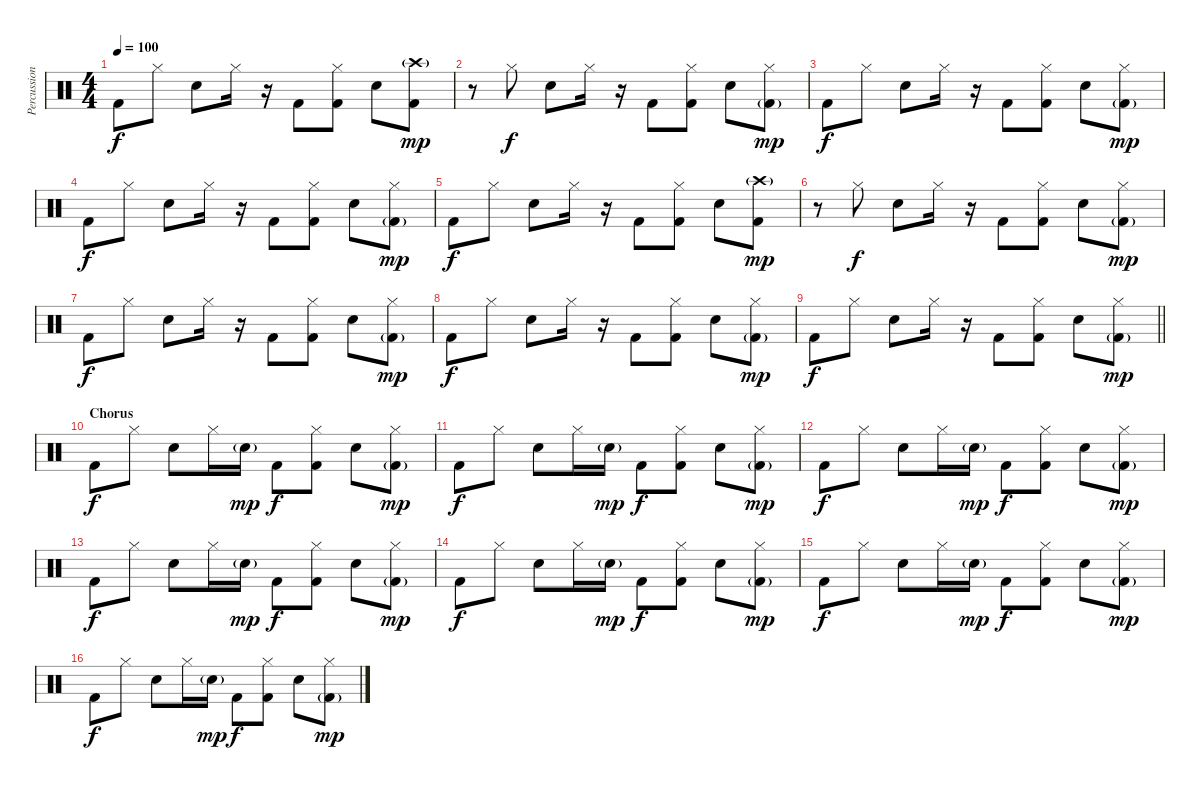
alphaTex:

\track ("Percussion" "Percussion") {instrument percussion}
\staff {score}
\articulation defaults
\ts (4 4)
\tempo 100
\clef neutral
\ks c "Kick (hit) 2".8{dy f} "Hi-Hat (closed)".8 "Snare (hit) 2".8 "Hi-Hat (closed)".16
r.16 "Kick (hit) 2".8 ("Hi-Hat (closed)" "Kick (hit) 2").8 "Snare (hit) 2".8 ("Crash high (hit)"{g} "Kick (hit) 2").8{dy mp} |
r.8 "Hi-Hat (closed)".8{dy f} "Snare (hit) 2".8 "Hi-Hat (closed)".16 r.16 "Kick (hit) 2".8 ("Hi-Hat (closed)" "Kick (hit) 2").8 "Snare (hit) 2".8 ("Hi-Hat (closed)" "Kick (hit) 2"{g}).8{dy mp} |
"Kick (hit) 2".8{dy f} "Hi-Hat (closed)".8 "Snare (hit) 2".8 "Hi-Hat (closed)".16 r.16 "Kick (hit) 2".8 ("Hi-Hat (closed)" "Kick (hit) 2").8 "Snare (hit) 2".8 ("Hi-Hat (closed)" "Kick (hit) 2"{g}).8{dy mp} |
"Kick (hit) 2".8{dy f} "Hi-Hat (closed)".8 "Snare (hit) 2".8 "Hi-Hat (closed)".16 r.16 "Kick (hit) 2".8 ("Hi-Hat (closed)" "Kick (hit) 2").8 "Snare (hit) 2".8 ("Hi-Hat (closed)" "Kick (hit) 2"{g}).8{dy mp} |
"Kick (hit) 2".8{dy f} "Hi-Hat (closed)".8 "Snare (hit) 2".8 "Hi-Hat (closed)".16 r.16 "Kick (hit) 2".8 ("Hi-Hat (closed)" "Kick (hit) 2").8 "Snare (hit) 2".8 ("Crash high (hit)"{g} "Kick (hit) 2").8{dy mp} |
r.8 "Hi-Hat (closed)".8{dy f} "Snare (hit) 2".8 "Hi-Hat (closed)".16 r.16 "Kick (hit) 2".8 ("Hi-Hat (closed)" "Kick (hit) 2").8 "Snare (hit) 2".8 ("Hi-Hat (closed)" "Kick (hit) 2"{g}).8{dy mp} |
"Kick (hit) 2".8{dy f} "Hi-Hat (closed)".8 "Snare (hit) 2".8 "Hi-Hat (closed)".16 r.16 "Kick (hit) 2".8 ("Hi-Hat (closed)" "Kick (hit) 2").8 "Snare (hit) 2".8 ("Hi-Hat (closed)" "Kick (hit) 2"{g}).8{dy mp} |
"Kick (hit) 2".8{dy f} "Hi-Hat (closed)".8 "Snare (hit) 2".8 "Hi-Hat (closed)".16 r.16 "Kick (hit) 2".8 ("Hi-Hat (closed)" "Kick (hit) 2").8 "Snare (hit) 2".8 ("Hi-Hat (closed)" "Kick (hit) 2"{g}).8{dy mp} |
\barLineRight lightlight "Kick (hit) 2".8{dy f} "Hi-Hat (closed)".8 "Snare (hit) 2".8 "Hi-Hat (closed)".16
r.16 "Kick (hit) 2".8 ("Hi-Hat (closed)" "Kick (hit) 2").8 "Snare (hit) 2".8 ("Hi-Hat (closed)" "Kick (hit) 2"{g}).8{dy mp} |
\section ("" "Chorus")
"Kick (hit) 2".8{dy f} "Hi-Hat (closed)".8 "Snare (hit) 2".8 "Hi-Hat (closed)".16 "Snare (hit) 2"{g}.16{dy mp} "Kick (hit) 2".8{dy f} ("Hi-Hat (closed)" "Kick (hit) 2").8 "Snare (hit) 2".8 ("Hi-Hat (closed)" "Kick (hit) 2"{g}).8{dy mp} |
"Kick (hit) 2".8{dy f} "Hi-Hat (closed)".8 "Snare (hit) 2".8 "Hi-Hat (closed)".16 "Snare (hit) 2"{g}.16{dy mp} "Kick (hit) 2".8{dy f} ("Hi-Hat (closed)" "Kick (hit) 2").8 "Snare (hit) 2".8 ("Hi-Hat (closed)" "Kick (hit) 2"{g}).8{dy mp} |
"Kick (hit) 2".8{dy f} "Hi-Hat (closed)".8 "Snare (hit) 2".8 "Hi-Hat (closed)".16 "Snare (hit) 2"{g}.16{dy mp} "Kick (hit) 2".8{dy f} ("Hi-Hat (closed)" "Kick (hit) 2").8 "Snare (hit) 2".8 ("Hi-Hat (closed)" "Kick (hit) 2"{g}).8{dy mp} |
"Kick (hit) 2".8{dy f} "Hi-Hat (closed)".8 "Snare (hit) 2".8 "Hi-Hat (closed)".16 "Snare (hit) 2"{g}.16{dy mp} "Kick (hit) 2".8{dy f} ("Hi-Hat (closed)" "Kick (hit) 2").8 "Snare (hit) 2".8 ("Hi-Hat (closed)" "Kick (hit) 2"{g}).8{dy mp} |
"Kick (hit) 2".8{dy f} "Hi-Hat (closed)".8 "Snare (hit) 2".8 "Hi-Hat (closed)".16 "Snare (hit) 2"{g}.16{dy mp} "Kick (hit) 2".8{dy f} ("Hi-Hat (closed)" "Kick (hit) 2").8 "Snare (hit) 2".8 ("Hi-Hat (closed)" "Kick (hit) 2"{g}).8{dy mp} |
"Kick (hit) 2".8{dy f} "Hi-Hat (closed)".8 "Snare (hit) 2".8 "Hi-Hat (closed)".16 "Snare (hit) 2"{g}.16{dy mp} "Kick (hit) 2".8{dy f} ("Hi-Hat (closed)" "Kick (hit) 2").8 "Snare (hit) 2".8 ("Hi-Hat (closed)" "Kick (hit) 2"{g}).8{dy mp} |
"Kick (hit) 2".8{dy f} "Hi-Hat (closed)".8 "Snare (hit) 2".8 "Hi-Hat (closed)".16 "Snare (hit) 2"{g}.16{dy mp} "Kick (hit) 2".8{dy f} ("Hi-Hat (closed)" "Kick (hit) 2").8 "Snare (hit) 2".8 ("Hi-Hat (closed)" "Kick (hit) 2"{g}).8{dy mp}
